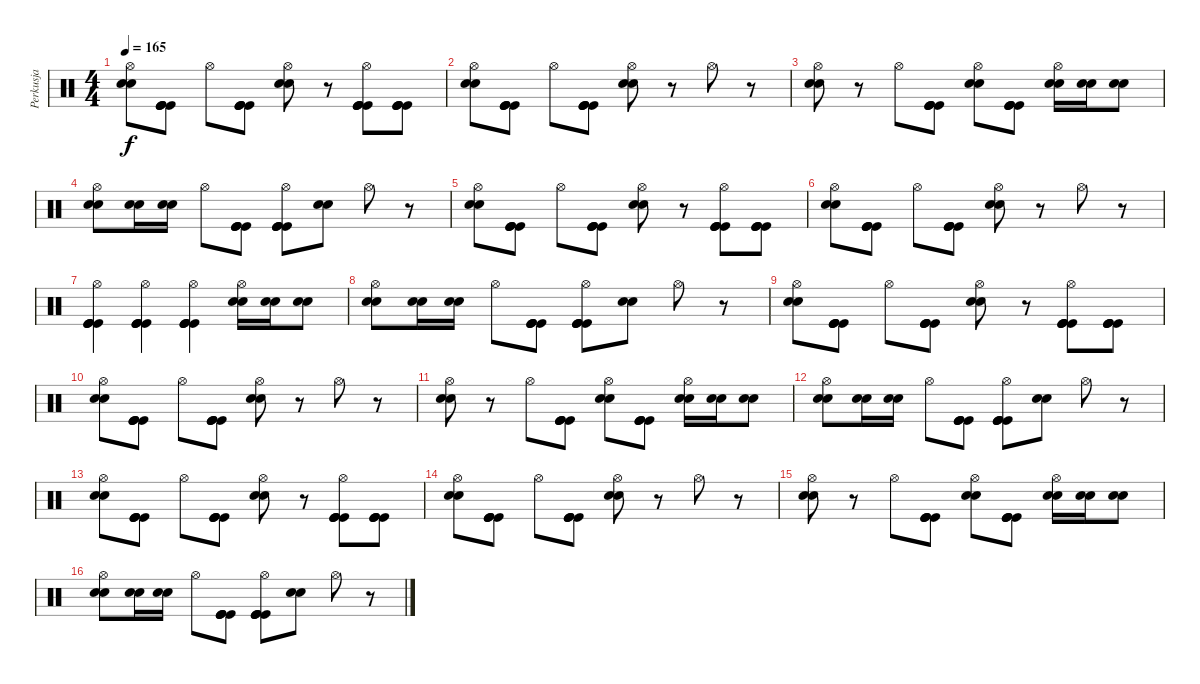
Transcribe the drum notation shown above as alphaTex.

\track ("Perkusja" "Perkusja") {instrument percussion}
\staff {score}
\articulation defaults
\ts (4 4)
\tempo 165
\clef neutral
\ks c
("Hi-Hat (open)" "Snare (hit) 2" "Snare (hit) 2").8{dy f} ("Kick (hit)" "Kick (hit)" "Kick (hit)" "Kick (hit)").8 "Hi-Hat (open)".8 ("Kick (hit)" "Kick (hit)" "Kick (hit)" "Kick (hit)").8 ("Hi-Hat (open)" "Snare (hit) 2" "Snare (hit) 2").8 r.8 ("Hi-Hat (open)" "Kick (hit)" "Kick (hit)" "Kick (hit)" "Kick (hit)").8 ("Kick (hit)" "Kick (hit)" "Kick (hit)" "Kick (hit)").8 |
("Hi-Hat (open)" "Snare (hit) 2" "Snare (hit) 2").8 ("Kick (hit)" "Kick (hit)" "Kick (hit)" "Kick (hit)").8 "Hi-Hat (open)".8 ("Kick (hit)" "Kick (hit)" "Kick (hit)" "Kick (hit)").8 ("Hi-Hat (open)" "Snare (hit) 2" "Snare (hit) 2").8 r.8 "Hi-Hat (open)".8 r.8 |
("Hi-Hat (open)" "Snare (hit) 2" "Snare (hit) 2").8 r.8 "Hi-Hat (open)".8 ("Kick (hit)" "Kick (hit)" "Kick (hit)" "Kick (hit)").8 ("Hi-Hat (open)" "Snare (hit) 2" "Snare (hit) 2").8 ("Kick (hit)" "Kick (hit)" "Kick (hit)" "Kick (hit)").8 ("Hi-Hat (open)" "Snare (hit) 2" "Snare (hit) 2").16 ("Snare (hit) 2" "Snare (hit) 2").16 ("Snare (hit) 2" "Snare (hit) 2").8 |
("Hi-Hat (open)" "Snare (hit) 2" "Snare (hit) 2").8 ("Snare (hit) 2" "Snare (hit) 2").16 ("Snare (hit) 2" "Snare (hit) 2").16 "Hi-Hat (open)".8 ("Kick (hit)" "Kick (hit)" "Kick (hit)" "Kick (hit)").8 ("Hi-Hat (open)" "Kick (hit)" "Kick (hit)" "Kick (hit)" "Kick (hit)").8 ("Snare (hit) 2" "Snare (hit) 2").8 "Hi-Hat (open)".8 r.8 |
("Hi-Hat (open)" "Snare (hit) 2" "Snare (hit) 2").8 ("Kick (hit)" "Kick (hit)" "Kick (hit)" "Kick (hit)").8 "Hi-Hat (open)".8 ("Kick (hit)" "Kick (hit)" "Kick (hit)" "Kick (hit)").8 ("Hi-Hat (open)" "Snare (hit) 2" "Snare (hit) 2").8 r.8 ("Hi-Hat (open)" "Kick (hit)" "Kick (hit)" "Kick (hit)" "Kick (hit)").8 ("Kick (hit)" "Kick (hit)" "Kick (hit)" "Kick (hit)").8 |
("Hi-Hat (open)" "Snare (hit) 2" "Snare (hit) 2").8 ("Kick (hit)" "Kick (hit)" "Kick (hit)" "Kick (hit)").8 "Hi-Hat (open)".8 ("Kick (hit)" "Kick (hit)" "Kick (hit)" "Kick (hit)").8 ("Hi-Hat (open)" "Snare (hit) 2" "Snare (hit) 2").8 r.8 "Hi-Hat (open)".8 r.8 |
("Hi-Hat (open)" "Kick (hit)" "Kick (hit)" "Kick (hit)" "Kick (hit)").4 ("Hi-Hat (open)" "Kick (hit)" "Kick (hit)" "Kick (hit)" "Kick (hit)").4 ("Hi-Hat (open)" "Kick (hit)" "Kick (hit)" "Kick (hit)" "Kick (hit)").4 ("Hi-Hat (open)" "Snare (hit) 2" "Snare (hit) 2").16 ("Snare (hit) 2" "Snare (hit) 2").16 ("Snare (hit) 2" "Snare (hit) 2").8 |
("Hi-Hat (open)" "Snare (hit) 2" "Snare (hit) 2").8 ("Snare (hit) 2" "Snare (hit) 2").16 ("Snare (hit) 2" "Snare (hit) 2").16 "Hi-Hat (open)".8 ("Kick (hit)" "Kick (hit)" "Kick (hit)" "Kick (hit)").8 ("Hi-Hat (open)" "Kick (hit)" "Kick (hit)" "Kick (hit)" "Kick (hit)").8 ("Snare (hit) 2" "Snare (hit) 2").8 "Hi-Hat (open)".8 r.8 |
("Hi-Hat (open)" "Snare (hit) 2" "Snare (hit) 2").8 ("Kick (hit)" "Kick (hit)" "Kick (hit)" "Kick (hit)").8 "Hi-Hat (open)".8 ("Kick (hit)" "Kick (hit)" "Kick (hit)" "Kick (hit)").8 ("Hi-Hat (open)" "Snare (hit) 2" "Snare (hit) 2").8 r.8 ("Hi-Hat (open)" "Kick (hit)" "Kick (hit)" "Kick (hit)" "Kick (hit)").8 ("Kick (hit)" "Kick (hit)" "Kick (hit)" "Kick (hit)").8 |
("Hi-Hat (open)" "Snare (hit) 2" "Snare (hit) 2").8 ("Kick (hit)" "Kick (hit)" "Kick (hit)" "Kick (hit)").8 "Hi-Hat (open)".8 ("Kick (hit)" "Kick (hit)" "Kick (hit)" "Kick (hit)").8 ("Hi-Hat (open)" "Snare (hit) 2" "Snare (hit) 2").8 r.8 "Hi-Hat (open)".8 r.8 |
("Hi-Hat (open)" "Snare (hit) 2" "Snare (hit) 2").8 r.8 "Hi-Hat (open)".8 ("Kick (hit)" "Kick (hit)" "Kick (hit)" "Kick (hit)").8 ("Hi-Hat (open)" "Snare (hit) 2" "Snare (hit) 2").8 ("Kick (hit)" "Kick (hit)" "Kick (hit)" "Kick (hit)").8 ("Hi-Hat (open)" "Snare (hit) 2" "Snare (hit) 2").16 ("Snare (hit) 2" "Snare (hit) 2").16 ("Snare (hit) 2" "Snare (hit) 2").8 |
("Hi-Hat (open)" "Snare (hit) 2" "Snare (hit) 2").8 ("Snare (hit) 2" "Snare (hit) 2").16 ("Snare (hit) 2" "Snare (hit) 2").16 "Hi-Hat (open)".8 ("Kick (hit)" "Kick (hit)" "Kick (hit)" "Kick (hit)").8 ("Hi-Hat (open)" "Kick (hit)" "Kick (hit)" "Kick (hit)" "Kick (hit)").8 ("Snare (hit) 2" "Snare (hit) 2").8 "Hi-Hat (open)".8 r.8 |
("Hi-Hat (open)" "Snare (hit) 2" "Snare (hit) 2").8 ("Kick (hit)" "Kick (hit)" "Kick (hit)" "Kick (hit)").8 "Hi-Hat (open)".8 ("Kick (hit)" "Kick (hit)" "Kick (hit)" "Kick (hit)").8 ("Hi-Hat (open)" "Snare (hit) 2" "Snare (hit) 2").8 r.8 ("Hi-Hat (open)" "Kick (hit)" "Kick (hit)" "Kick (hit)" "Kick (hit)").8 ("Kick (hit)" "Kick (hit)" "Kick (hit)" "Kick (hit)").8 |
("Hi-Hat (open)" "Snare (hit) 2" "Snare (hit) 2").8 ("Kick (hit)" "Kick (hit)" "Kick (hit)" "Kick (hit)").8 "Hi-Hat (open)".8 ("Kick (hit)" "Kick (hit)" "Kick (hit)" "Kick (hit)").8 ("Hi-Hat (open)" "Snare (hit) 2" "Snare (hit) 2").8 r.8 "Hi-Hat (open)".8 r.8 |
("Hi-Hat (open)" "Snare (hit) 2" "Snare (hit) 2").8 r.8 "Hi-Hat (open)".8 ("Kick (hit)" "Kick (hit)" "Kick (hit)" "Kick (hit)").8 ("Hi-Hat (open)" "Snare (hit) 2" "Snare (hit) 2").8 ("Kick (hit)" "Kick (hit)" "Kick (hit)" "Kick (hit)").8 ("Hi-Hat (open)" "Snare (hit) 2" "Snare (hit) 2").16 ("Snare (hit) 2" "Snare (hit) 2").16 ("Snare (hit) 2" "Snare (hit) 2").8 |
("Hi-Hat (open)" "Snare (hit) 2" "Snare (hit) 2").8 ("Snare (hit) 2" "Snare (hit) 2").16 ("Snare (hit) 2" "Snare (hit) 2").16 "Hi-Hat (open)".8 ("Kick (hit)" "Kick (hit)" "Kick (hit)" "Kick (hit)").8 ("Hi-Hat (open)" "Kick (hit)" "Kick (hit)" "Kick (hit)" "Kick (hit)").8 ("Snare (hit) 2" "Snare (hit) 2").8 "Hi-Hat (open)".8 r.8
